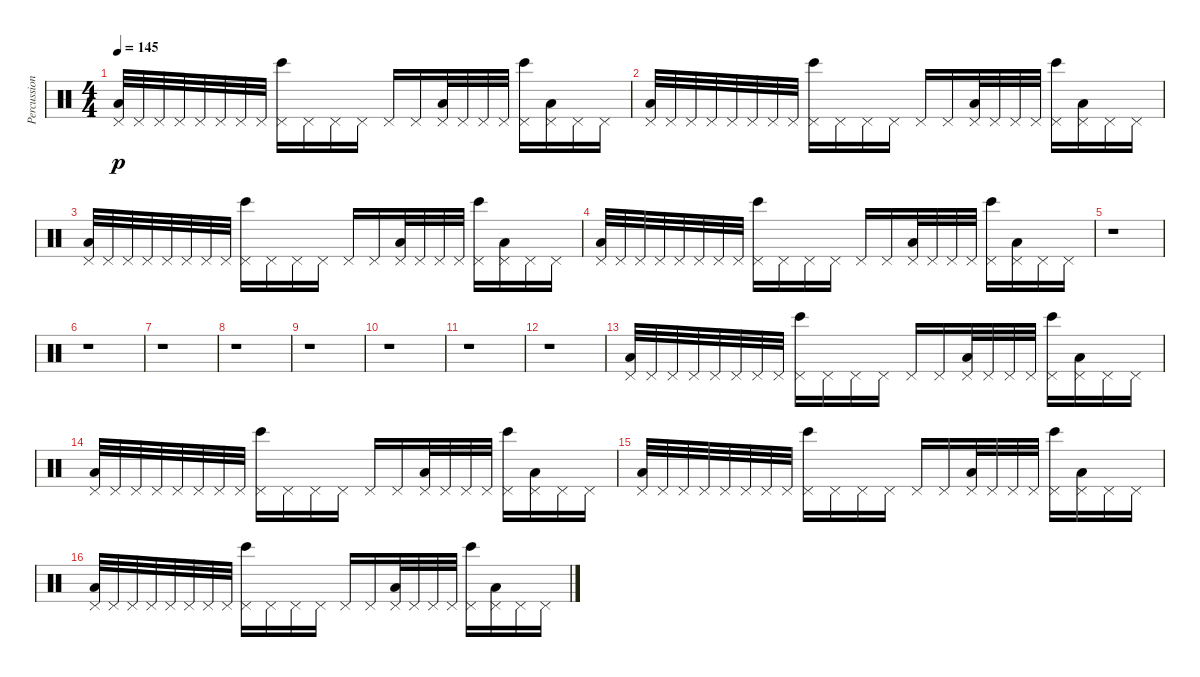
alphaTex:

\track ("Percussion" "Percussion") {instrument percussion}
\staff {score}
\articulation defaults
\ts (4 4)
\tempo 145
\clef neutral
\ks c
("Pedal Hi-Hat (hit)" "Low Tom (hit)").32{dy p} "Pedal Hi-Hat (hit)".32 "Pedal Hi-Hat (hit)".32 "Pedal Hi-Hat (hit)".32 "Pedal Hi-Hat (hit)".32 "Pedal Hi-Hat (hit)".32 "Pedal Hi-Hat (hit)".32 "Pedal Hi-Hat (hit)".32 ("Pedal Hi-Hat (hit)" "Bongo High (hit)").16 "Pedal Hi-Hat (hit)".16 "Pedal Hi-Hat (hit)".16 "Pedal Hi-Hat (hit)".16 "Pedal Hi-Hat (hit)".16 "Pedal Hi-Hat (hit)".16 ("Pedal Hi-Hat (hit)" "Low Tom (hit)").32 "Pedal Hi-Hat (hit)".32 "Pedal Hi-Hat (hit)".32 "Pedal Hi-Hat (hit)".32 ("Pedal Hi-Hat (hit)" "Bongo High (hit)").16 ("Pedal Hi-Hat (hit)" "Low Tom (hit)").16 "Pedal Hi-Hat (hit)".16 "Pedal Hi-Hat (hit)".16 |
("Pedal Hi-Hat (hit)" "Low Tom (hit)").32 "Pedal Hi-Hat (hit)".32 "Pedal Hi-Hat (hit)".32 "Pedal Hi-Hat (hit)".32 "Pedal Hi-Hat (hit)".32 "Pedal Hi-Hat (hit)".32 "Pedal Hi-Hat (hit)".32 "Pedal Hi-Hat (hit)".32 ("Pedal Hi-Hat (hit)" "Bongo High (hit)").16 "Pedal Hi-Hat (hit)".16 "Pedal Hi-Hat (hit)".16 "Pedal Hi-Hat (hit)".16 "Pedal Hi-Hat (hit)".16 "Pedal Hi-Hat (hit)".16 ("Pedal Hi-Hat (hit)" "Low Tom (hit)").32 "Pedal Hi-Hat (hit)".32 "Pedal Hi-Hat (hit)".32 "Pedal Hi-Hat (hit)".32 ("Pedal Hi-Hat (hit)" "Bongo High (hit)").16 ("Pedal Hi-Hat (hit)" "Low Tom (hit)").16 "Pedal Hi-Hat (hit)".16 "Pedal Hi-Hat (hit)".16 |
("Pedal Hi-Hat (hit)" "Low Tom (hit)").32 "Pedal Hi-Hat (hit)".32 "Pedal Hi-Hat (hit)".32 "Pedal Hi-Hat (hit)".32 "Pedal Hi-Hat (hit)".32 "Pedal Hi-Hat (hit)".32 "Pedal Hi-Hat (hit)".32 "Pedal Hi-Hat (hit)".32 ("Pedal Hi-Hat (hit)" "Bongo High (hit)").16 "Pedal Hi-Hat (hit)".16 "Pedal Hi-Hat (hit)".16 "Pedal Hi-Hat (hit)".16 "Pedal Hi-Hat (hit)".16 "Pedal Hi-Hat (hit)".16 ("Pedal Hi-Hat (hit)" "Low Tom (hit)").32 "Pedal Hi-Hat (hit)".32 "Pedal Hi-Hat (hit)".32 "Pedal Hi-Hat (hit)".32 ("Pedal Hi-Hat (hit)" "Bongo High (hit)").16 ("Pedal Hi-Hat (hit)" "Low Tom (hit)").16 "Pedal Hi-Hat (hit)".16 "Pedal Hi-Hat (hit)".16 |
("Pedal Hi-Hat (hit)" "Low Tom (hit)").32 "Pedal Hi-Hat (hit)".32 "Pedal Hi-Hat (hit)".32 "Pedal Hi-Hat (hit)".32 "Pedal Hi-Hat (hit)".32 "Pedal Hi-Hat (hit)".32 "Pedal Hi-Hat (hit)".32 "Pedal Hi-Hat (hit)".32 ("Pedal Hi-Hat (hit)" "Bongo High (hit)").16 "Pedal Hi-Hat (hit)".16 "Pedal Hi-Hat (hit)".16 "Pedal Hi-Hat (hit)".16 "Pedal Hi-Hat (hit)".16 "Pedal Hi-Hat (hit)".16 ("Pedal Hi-Hat (hit)" "Low Tom (hit)").32 "Pedal Hi-Hat (hit)".32 "Pedal Hi-Hat (hit)".32 "Pedal Hi-Hat (hit)".32 ("Pedal Hi-Hat (hit)" "Bongo High (hit)").16 ("Pedal Hi-Hat (hit)" "Low Tom (hit)").16 "Pedal Hi-Hat (hit)".16 "Pedal Hi-Hat (hit)".16 |
r.1 |
r.1 |
r.1 |
r.1 |
r.1 |
r.1 |
r.1 |
r.1 |
("Pedal Hi-Hat (hit)" "Low Tom (hit)").32 "Pedal Hi-Hat (hit)".32 "Pedal Hi-Hat (hit)".32 "Pedal Hi-Hat (hit)".32 "Pedal Hi-Hat (hit)".32 "Pedal Hi-Hat (hit)".32 "Pedal Hi-Hat (hit)".32 "Pedal Hi-Hat (hit)".32 ("Pedal Hi-Hat (hit)" "Bongo High (hit)").16 "Pedal Hi-Hat (hit)".16 "Pedal Hi-Hat (hit)".16 "Pedal Hi-Hat (hit)".16 "Pedal Hi-Hat (hit)".16 "Pedal Hi-Hat (hit)".16 ("Pedal Hi-Hat (hit)" "Low Tom (hit)").32 "Pedal Hi-Hat (hit)".32 "Pedal Hi-Hat (hit)".32 "Pedal Hi-Hat (hit)".32 ("Pedal Hi-Hat (hit)" "Bongo High (hit)").16 ("Pedal Hi-Hat (hit)" "Low Tom (hit)").16 "Pedal Hi-Hat (hit)".16 "Pedal Hi-Hat (hit)".16 |
("Pedal Hi-Hat (hit)" "Low Tom (hit)").32 "Pedal Hi-Hat (hit)".32 "Pedal Hi-Hat (hit)".32 "Pedal Hi-Hat (hit)".32 "Pedal Hi-Hat (hit)".32 "Pedal Hi-Hat (hit)".32 "Pedal Hi-Hat (hit)".32 "Pedal Hi-Hat (hit)".32 ("Pedal Hi-Hat (hit)" "Bongo High (hit)").16 "Pedal Hi-Hat (hit)".16 "Pedal Hi-Hat (hit)".16 "Pedal Hi-Hat (hit)".16 "Pedal Hi-Hat (hit)".16 "Pedal Hi-Hat (hit)".16 ("Pedal Hi-Hat (hit)" "Low Tom (hit)").32 "Pedal Hi-Hat (hit)".32 "Pedal Hi-Hat (hit)".32 "Pedal Hi-Hat (hit)".32 ("Pedal Hi-Hat (hit)" "Bongo High (hit)").16 ("Pedal Hi-Hat (hit)" "Low Tom (hit)").16 "Pedal Hi-Hat (hit)".16 "Pedal Hi-Hat (hit)".16 |
("Pedal Hi-Hat (hit)" "Low Tom (hit)").32 "Pedal Hi-Hat (hit)".32 "Pedal Hi-Hat (hit)".32 "Pedal Hi-Hat (hit)".32 "Pedal Hi-Hat (hit)".32 "Pedal Hi-Hat (hit)".32 "Pedal Hi-Hat (hit)".32 "Pedal Hi-Hat (hit)".32 ("Pedal Hi-Hat (hit)" "Bongo High (hit)").16 "Pedal Hi-Hat (hit)".16 "Pedal Hi-Hat (hit)".16 "Pedal Hi-Hat (hit)".16 "Pedal Hi-Hat (hit)".16 "Pedal Hi-Hat (hit)".16 ("Pedal Hi-Hat (hit)" "Low Tom (hit)").32 "Pedal Hi-Hat (hit)".32 "Pedal Hi-Hat (hit)".32 "Pedal Hi-Hat (hit)".32 ("Pedal Hi-Hat (hit)" "Bongo High (hit)").16 ("Pedal Hi-Hat (hit)" "Low Tom (hit)").16 "Pedal Hi-Hat (hit)".16 "Pedal Hi-Hat (hit)".16 |
("Pedal Hi-Hat (hit)" "Low Tom (hit)").32 "Pedal Hi-Hat (hit)".32 "Pedal Hi-Hat (hit)".32 "Pedal Hi-Hat (hit)".32 "Pedal Hi-Hat (hit)".32 "Pedal Hi-Hat (hit)".32 "Pedal Hi-Hat (hit)".32 "Pedal Hi-Hat (hit)".32 ("Pedal Hi-Hat (hit)" "Bongo High (hit)").16 "Pedal Hi-Hat (hit)".16 "Pedal Hi-Hat (hit)".16 "Pedal Hi-Hat (hit)".16 "Pedal Hi-Hat (hit)".16 "Pedal Hi-Hat (hit)".16 ("Pedal Hi-Hat (hit)" "Low Tom (hit)").32 "Pedal Hi-Hat (hit)".32 "Pedal Hi-Hat (hit)".32 "Pedal Hi-Hat (hit)".32 ("Pedal Hi-Hat (hit)" "Bongo High (hit)").16 ("Pedal Hi-Hat (hit)" "Low Tom (hit)").16 "Pedal Hi-Hat (hit)".16 "Pedal Hi-Hat (hit)".16
